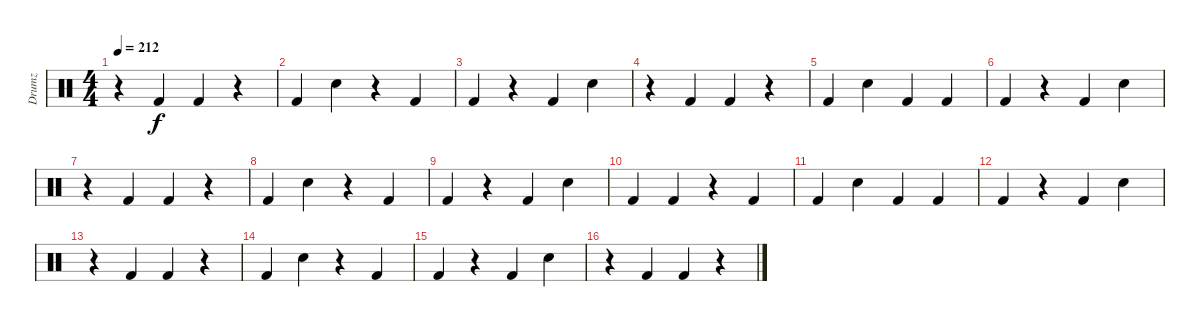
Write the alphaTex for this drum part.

\track ("Drumz" "Drumz") {instrument percussion}
\staff {score}
\articulation defaults
\ts (4 4)
\tempo 212
\clef neutral
\ks c
r.4{dy f} "Kick (hit) 2".4 "Kick (hit) 2".4 r.4 |
"Kick (hit) 2".4 "Snare (hit) 2".4 r.4 "Kick (hit) 2".4 |
"Kick (hit) 2".4 r.4 "Kick (hit) 2".4 "Snare (hit) 2".4 |
r.4 "Kick (hit) 2".4 "Kick (hit) 2".4 r.4 |
"Kick (hit) 2".4 "Snare (hit) 2".4 "Kick (hit) 2".4 "Kick (hit) 2".4 |
"Kick (hit) 2".4 r.4 "Kick (hit) 2".4 "Snare (hit) 2".4 |
r.4 "Kick (hit) 2".4 "Kick (hit) 2".4 r.4 |
"Kick (hit) 2".4 "Snare (hit) 2".4 r.4 "Kick (hit) 2".4 |
"Kick (hit) 2".4 r.4 "Kick (hit) 2".4 "Snare (hit) 2".4 |
"Kick (hit) 2".4 "Kick (hit) 2".4 r.4 "Kick (hit) 2".4 |
"Kick (hit) 2".4 "Snare (hit) 2".4 "Kick (hit) 2".4 "Kick (hit) 2".4 |
"Kick (hit) 2".4 r.4 "Kick (hit) 2".4 "Snare (hit) 2".4 |
r.4 "Kick (hit) 2".4 "Kick (hit) 2".4 r.4 |
"Kick (hit) 2".4 "Snare (hit) 2".4 r.4 "Kick (hit) 2".4 |
"Kick (hit) 2".4 r.4 "Kick (hit) 2".4 "Snare (hit) 2".4 |
r.4 "Kick (hit) 2".4 "Kick (hit) 2".4 r.4
